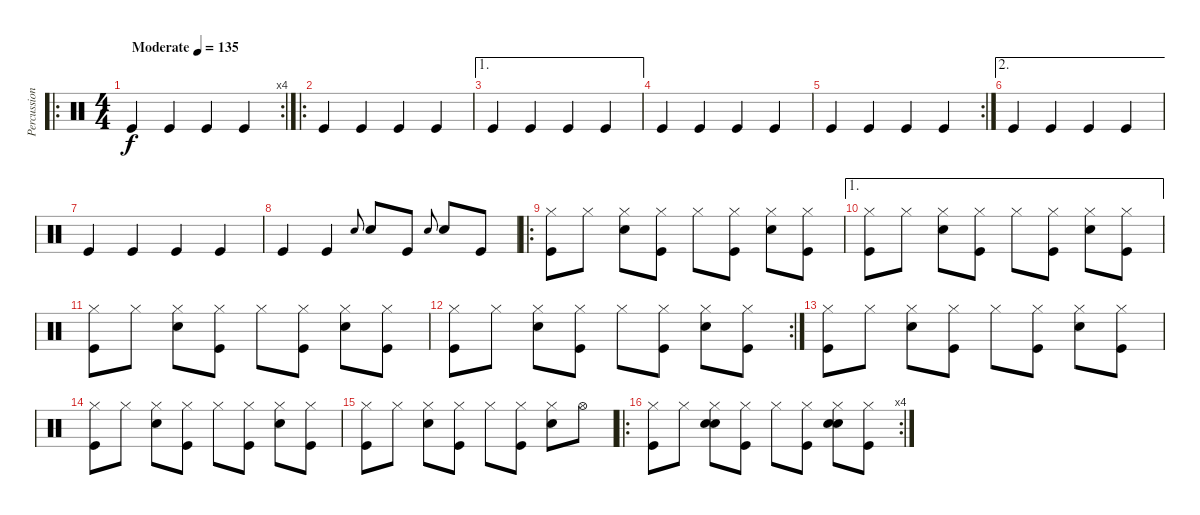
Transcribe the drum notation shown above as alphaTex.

\track ("Percussion" "Percussion") {instrument percussion}
\staff {score}
\articulation defaults
\ro
\rc 4
\ts (4 4)
\tempo (135 "Moderate")
\clef neutral
\ks c "Kick (hit)".4{dy f} "Kick (hit)".4 "Kick (hit)".4 "Kick (hit)".4
|
\ro "Kick (hit)".4 "Kick (hit)".4 "Kick (hit)".4 "Kick (hit)".4
|
\ae 1 "Kick (hit)".4 "Kick (hit)".4 "Kick (hit)".4 "Kick (hit)".4
|
"Kick (hit)".4 "Kick (hit)".4 "Kick (hit)".4 "Kick (hit)".4 |
\rc 2 "Kick (hit)".4 "Kick (hit)".4 "Kick (hit)".4 "Kick (hit)".4
|
\ae 2 "Kick (hit)".4 "Kick (hit)".4 "Kick (hit)".4 "Kick (hit)".4
|
"Kick (hit)".4 "Kick (hit)".4 "Kick (hit)".4 "Kick (hit)".4 |
"Kick (hit)".4 "Kick (hit)".4 "Snare (hit) 2".8{gr onbeat} "Snare (hit) 2".8 "Kick (hit)".8 "Snare (hit) 2".8{gr onbeat} "Snare (hit) 2".8 "Kick (hit)".8 |
\ro
("Hi-Hat (closed)" "Kick (hit)").8 "Hi-Hat (closed)".8 ("Hi-Hat (closed)" "Snare (hit) 2").8 ("Hi-Hat (closed)" "Kick (hit)").8 "Hi-Hat (closed)".8 ("Hi-Hat (closed)" "Kick (hit)").8 ("Hi-Hat (closed)" "Snare (hit) 2").8 ("Hi-Hat (closed)" "Kick (hit)").8 |
\ae 1
("Hi-Hat (closed)" "Kick (hit)").8 "Hi-Hat (closed)".8 ("Hi-Hat (closed)" "Snare (hit) 2").8 ("Hi-Hat (closed)" "Kick (hit)").8 "Hi-Hat (closed)".8 ("Hi-Hat (closed)" "Kick (hit)").8 ("Hi-Hat (closed)" "Snare (hit) 2").8 ("Hi-Hat (closed)" "Kick (hit)").8 |
("Hi-Hat (closed)" "Kick (hit)").8 "Hi-Hat (closed)".8 ("Hi-Hat (closed)" "Snare (hit) 2").8 ("Hi-Hat (closed)" "Kick (hit)").8 "Hi-Hat (closed)".8 ("Hi-Hat (closed)" "Kick (hit)").8 ("Hi-Hat (closed)" "Snare (hit) 2").8 ("Hi-Hat (closed)" "Kick (hit)").8 |
\rc 2
("Hi-Hat (closed)" "Kick (hit)").8 "Hi-Hat (closed)".8 ("Hi-Hat (closed)" "Snare (hit) 2").8 ("Hi-Hat (closed)" "Kick (hit)").8 "Hi-Hat (closed)".8 ("Hi-Hat (closed)" "Kick (hit)").8 ("Hi-Hat (closed)" "Snare (hit) 2").8 ("Hi-Hat (closed)" "Kick (hit)").8 |
("Hi-Hat (closed)" "Kick (hit)").8 "Hi-Hat (closed)".8 ("Hi-Hat (closed)" "Snare (hit) 2").8 ("Hi-Hat (closed)" "Kick (hit)").8 "Hi-Hat (closed)".8 ("Hi-Hat (closed)" "Kick (hit)").8 ("Hi-Hat (closed)" "Snare (hit) 2").8 ("Hi-Hat (closed)" "Kick (hit)").8 |
("Hi-Hat (closed)" "Kick (hit)").8 "Hi-Hat (closed)".8 ("Hi-Hat (closed)" "Snare (hit) 2").8 ("Hi-Hat (closed)" "Kick (hit)").8 "Hi-Hat (closed)".8 ("Hi-Hat (closed)" "Kick (hit)").8 ("Hi-Hat (closed)" "Snare (hit) 2").8 ("Hi-Hat (closed)" "Kick (hit)").8 |
("Hi-Hat (closed)" "Kick (hit)").8 "Hi-Hat (closed)".8 ("Hi-Hat (closed)" "Snare (hit) 2").8 ("Hi-Hat (closed)" "Kick (hit)").8 "Hi-Hat (closed)".8 ("Hi-Hat (closed)" "Kick (hit)").8 ("Hi-Hat (closed)" "Snare (hit) 2").8 "Hi-Hat (open)".8 |
\ro
\rc 4
("Hi-Hat (closed)" "Kick (hit)").8 "Hi-Hat (closed)".8 ("Hi-Hat (closed)" "Hand Clap (hit)" "Snare (hit) 2").8 ("Hi-Hat (closed)" "Kick (hit)").8 "Hi-Hat (closed)".8 ("Hi-Hat (closed)" "Kick (hit)").8 ("Hi-Hat (closed)" "Snare (hit) 2" "Hand Clap (hit)").8 ("Hi-Hat (closed)" "Kick (hit)").8
